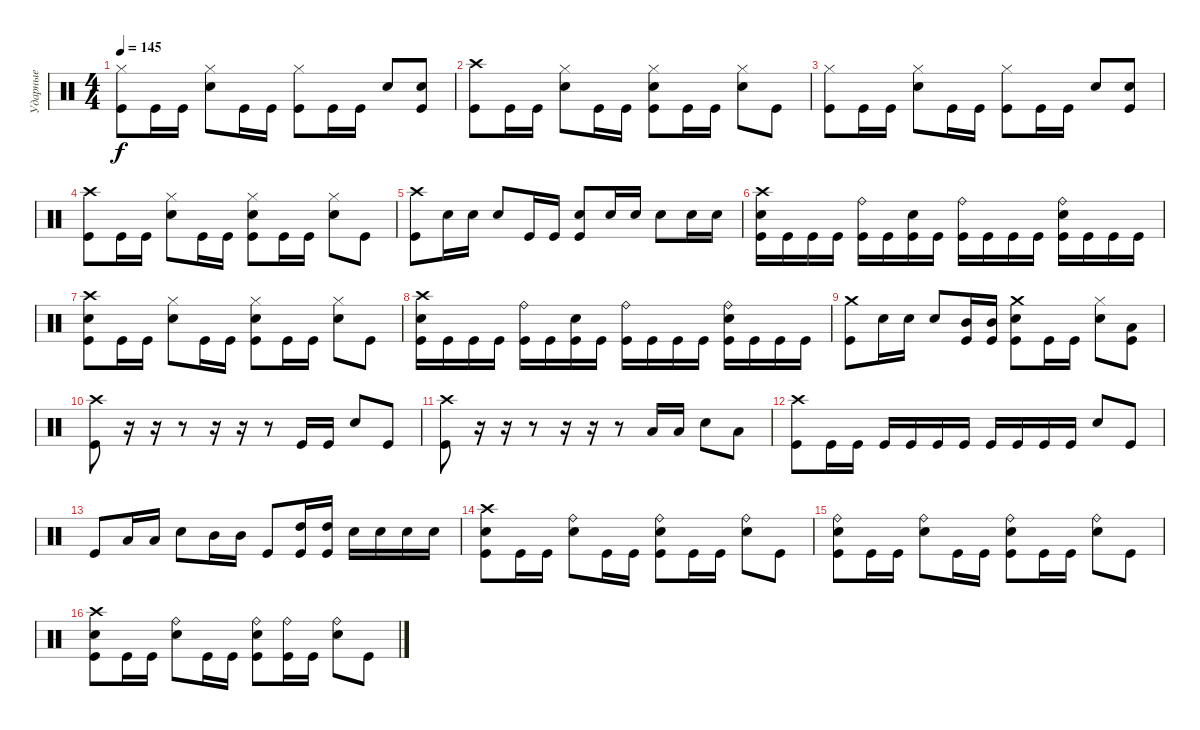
\track ("Ударные" "Ударные") {instrument percussion}
\staff {score}
\articulation defaults
\ts (4 4)
\tempo 145
\clef neutral
\ks c
("Hi-Hat (closed)" "Kick (hit)").8{dy f} "Kick (hit)".16 "Kick (hit)".16 ("Hi-Hat (closed)" "Electric Snare (hit)").8 "Kick (hit)".16 "Kick (hit)".16 ("Hi-Hat (closed)" "Kick (hit)").8 "Kick (hit)".16 "Kick (hit)".16 "Electric Snare (hit)".8 ("Electric Snare (hit)" "Kick (hit)").8 |
("Crash high (hit)" "Kick (hit)").8 "Kick (hit)".16 "Kick (hit)".16 ("Hi-Hat (closed)" "Electric Snare (hit)").8 "Kick (hit)".16 "Kick (hit)".16 ("Hi-Hat (closed)" "Electric Snare (hit)" "Kick (hit)").8 "Kick (hit)".16 "Kick (hit)".16 ("Hi-Hat (closed)" "Electric Snare (hit)").8 "Kick (hit)".8 |
("Hi-Hat (closed)" "Kick (hit)").8 "Kick (hit)".16 "Kick (hit)".16 ("Hi-Hat (closed)" "Electric Snare (hit)").8 "Kick (hit)".16 "Kick (hit)".16 ("Hi-Hat (closed)" "Kick (hit)").8 "Kick (hit)".16 "Kick (hit)".16 "Electric Snare (hit)".8 ("Electric Snare (hit)" "Kick (hit)").8 |
("Crash high (hit)" "Kick (hit)").8 "Kick (hit)".16 "Kick (hit)".16 ("Hi-Hat (closed)" "Electric Snare (hit)").8 "Kick (hit)".16 "Kick (hit)".16 ("Hi-Hat (closed)" "Electric Snare (hit)" "Kick (hit)").8 "Kick (hit)".16 "Kick (hit)".16 ("Hi-Hat (closed)" "Electric Snare (hit)").8 "Kick (hit)".8 |
("Crash high (hit)" "Kick (hit)").8 "Electric Snare (hit)".16 "Electric Snare (hit)".16 "Electric Snare (hit)".8 "Kick (hit)".16 "Kick (hit)".16 ("Electric Snare (hit)" "Kick (hit)").8 "Electric Snare (hit)".16 "Electric Snare (hit)".16 "Electric Snare (hit)".8 "Electric Snare (hit)".16 "Electric Snare (hit)".16 |
("Crash high (hit)" "Electric Snare (hit)" "Kick (hit)").16 "Kick (hit)".16 "Kick (hit)".16 "Kick (hit)".16 ("Ride (bell)" "Kick (hit)").16 "Kick (hit)".16 ("Electric Snare (hit)" "Kick (hit)").16 "Kick (hit)".16 ("Ride (bell)" "Kick (hit)").16 "Kick (hit)".16 "Kick (hit)".16 "Kick (hit)".16 ("Ride (bell)" "Electric Snare (hit)" "Kick (hit)").16 "Kick (hit)".16 "Kick (hit)".16 "Kick (hit)".16 |
("Crash high (hit)" "Electric Snare (hit)" "Kick (hit)").8 "Kick (hit)".16 "Kick (hit)".16 ("Hi-Hat (closed)" "Electric Snare (hit)").8 "Kick (hit)".16 "Kick (hit)".16 ("Hi-Hat (closed)" "Electric Snare (hit)" "Kick (hit)").8 "Kick (hit)".16 "Kick (hit)".16 ("Hi-Hat (closed)" "Electric Snare (hit)").8 "Kick (hit)".8 |
("Crash high (hit)" "Electric Snare (hit)" "Kick (hit)").16 "Kick (hit)".16 "Kick (hit)".16 "Kick (hit)".16 ("Ride (bell)" "Kick (hit)").16 "Kick (hit)".16 ("Electric Snare (hit)" "Kick (hit)").16 "Kick (hit)".16 ("Ride (bell)" "Kick (hit)").16 "Kick (hit)".16 "Kick (hit)".16 "Kick (hit)".16 ("Ride (bell)" "Electric Snare (hit)" "Kick (hit)").16 "Kick (hit)".16 "Kick (hit)".16 "Kick (hit)".16 |
("Crash medium (hit)" "Kick (hit)").8 "Electric Snare (hit)".16 "Electric Snare (hit)".16 "Electric Snare (hit)".8 ("Mid Tom (hit)" "Kick (hit)").16 ("Mid Tom (hit)" "Kick (hit)").16 ("Crash medium (hit)" "Electric Snare (hit)" "Kick (hit)").8 "Kick (hit)".16 "Kick (hit)".16 ("Hi-Hat (closed)" "Electric Snare (hit)").8 ("Low Tom (hit)" "Kick (hit)").8 |
("Crash high (hit)" "Kick (hit)").8 r.16 r.16 r.8 r.16 r.16 r.8 "Kick (hit)".16 "Kick (hit)".16 "Electric Snare (hit)".8 "Kick (hit)".8 |
("Crash high (hit)" "Kick (hit)").8 r.16 r.16 r.8 r.16 r.16 r.8 "Low Tom (hit)".16 "Low Tom (hit)".16 "Electric Snare (hit)".8 "Low Tom (hit)".8 |
("Crash high (hit)" "Kick (hit)").8 "Kick (hit)".16 "Kick (hit)".16 "Kick (hit)".16 "Kick (hit)".16 "Kick (hit)".16 "Kick (hit)".16 "Kick (hit)".16 "Kick (hit)".16 "Kick (hit)".16 "Kick (hit)".16 "Electric Snare (hit)".8 "Kick (hit)".8 |
"Kick (hit)".8 "Low Tom (hit)".16 "Low Tom (hit)".16 "Electric Snare (hit)".8 "Mid Tom (hit)".16 "Mid Tom (hit)".16 "Kick (hit)".8 ("High Tom (hit)" "Kick (hit)").16 ("High Tom (hit)" "Kick (hit)").16 "Electric Snare (hit)".16 "Electric Snare (hit)".16 "Electric Snare (hit)".16 "Electric Snare (hit)".16 |
("Crash high (hit)" "Electric Snare (hit)" "Kick (hit)").8 "Kick (hit)".16 "Kick (hit)".16 ("Ride (bell)" "Electric Snare (hit)").8 "Kick (hit)".16 "Kick (hit)".16 ("Ride (bell)" "Electric Snare (hit)" "Kick (hit)").8 "Kick (hit)".16 "Kick (hit)".16 ("Ride (bell)" "Electric Snare (hit)").8 "Kick (hit)".8 |
("Ride (bell)" "Electric Snare (hit)" "Kick (hit)").8 "Kick (hit)".16 "Kick (hit)".16 ("Ride (bell)" "Electric Snare (hit)").8 "Kick (hit)".16 "Kick (hit)".16 ("Ride (bell)" "Electric Snare (hit)" "Kick (hit)").8 "Kick (hit)".16 "Kick (hit)".16 ("Ride (bell)" "Electric Snare (hit)").8 "Kick (hit)".8 |
("Crash high (hit)" "Electric Snare (hit)" "Kick (hit)").8 "Kick (hit)".16 "Kick (hit)".16 ("Ride (bell)" "Electric Snare (hit)").8 "Kick (hit)".16 "Kick (hit)".16 ("Ride (bell)" "Electric Snare (hit)" "Kick (hit)").8 ("Ride (bell)" "Kick (hit)").16 "Kick (hit)".16 ("Ride (bell)" "Electric Snare (hit)").8 "Kick (hit)".8
